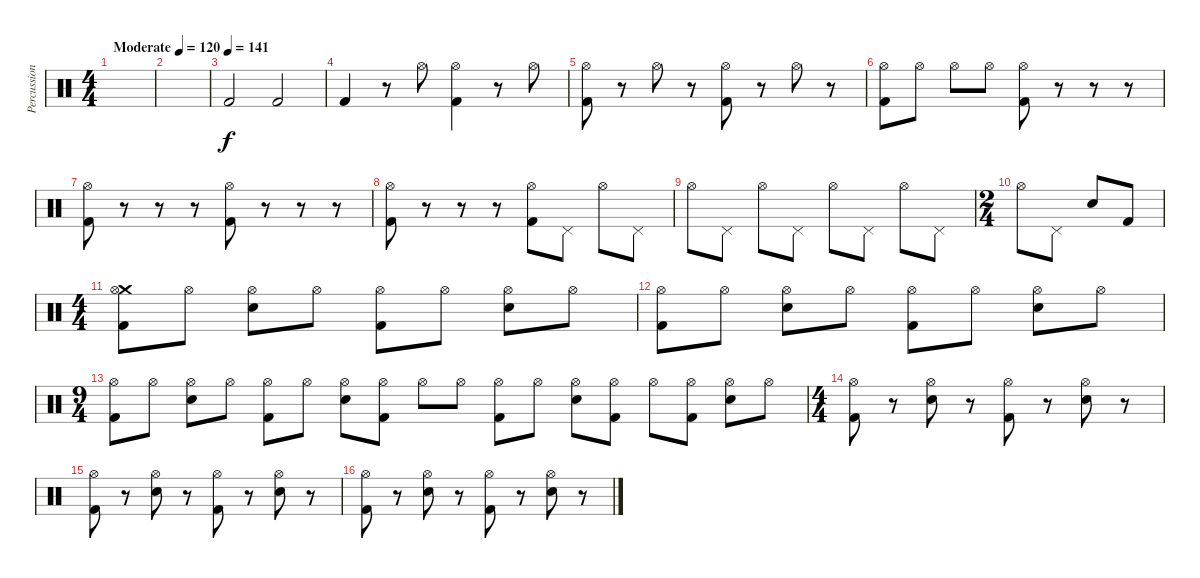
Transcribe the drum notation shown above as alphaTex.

\track ("Percussion" "Percussion") {instrument percussion}
\staff {score}
\articulation defaults
\ts (4 4)
\tempo (120 "Moderate")
\clef neutral
\ks c
|
|
\tempo (141)
"Kick (hit) 2".2 "Kick (hit) 2".2 |
"Kick (hit) 2".4 r.8 "Hi-Hat (open)".8 ("Hi-Hat (open)" "Kick (hit) 2").4 r.8 "Hi-Hat (open)".8 |
("Hi-Hat (open)" "Kick (hit) 2").8 r.8 "Hi-Hat (open)".8 r.8 ("Hi-Hat (open)" "Kick (hit) 2").8 r.8 "Hi-Hat (open)".8 r.8 |
("Hi-Hat (open)" "Kick (hit) 2").8 "Hi-Hat (open)".8 "Hi-Hat (open)".8 "Hi-Hat (open)".8 ("Hi-Hat (open)" "Kick (hit) 2").8 r.8 r.8 r.8 |
("Hi-Hat (open)" "Kick (hit) 2").8 r.8 r.8 r.8 ("Hi-Hat (open)" "Kick (hit) 2").8 r.8 r.8 r.8 |
("Hi-Hat (open)" "Kick (hit) 2").8 r.8 r.8 r.8 ("Hi-Hat (open)" "Kick (hit) 2").8 "Pedal Hi-Hat (hit)".8 "Hi-Hat (open)".8 "Pedal Hi-Hat (hit)".8 |
"Hi-Hat (open)".8 "Pedal Hi-Hat (hit)".8 "Hi-Hat (open)".8 "Pedal Hi-Hat (hit)".8 "Hi-Hat (open)".8 "Pedal Hi-Hat (hit)".8 "Hi-Hat (open)".8 "Pedal Hi-Hat (hit)".8 |
\ts (2 4)
"Hi-Hat (open)".8 "Pedal Hi-Hat (hit)".8 "Electric Snare (hit)".8 "Kick (hit) 2".8 |
\ts (4 4)
("Crash medium (hit)" "Hi-Hat (open)" "Kick (hit) 2").8 "Hi-Hat (open)".8 ("Hi-Hat (open)" "Electric Snare (hit)").8 "Hi-Hat (open)".8 ("Hi-Hat (open)" "Kick (hit) 2").8 "Hi-Hat (open)".8 ("Hi-Hat (open)" "Electric Snare (hit)").8 "Hi-Hat (open)".8 |
("Hi-Hat (open)" "Kick (hit) 2").8 "Hi-Hat (open)".8 ("Hi-Hat (open)" "Electric Snare (hit)").8 "Hi-Hat (open)".8 ("Hi-Hat (open)" "Kick (hit) 2").8 "Hi-Hat (open)".8 ("Hi-Hat (open)" "Electric Snare (hit)").8 "Hi-Hat (open)".8 |
\ts (9 4)
("Hi-Hat (open)" "Kick (hit) 2").8 "Hi-Hat (open)".8 ("Hi-Hat (open)" "Electric Snare (hit)").8 "Hi-Hat (open)".8 ("Hi-Hat (open)" "Kick (hit) 2").8 "Hi-Hat (open)".8 ("Hi-Hat (open)" "Electric Snare (hit)").8 ("Hi-Hat (open)" "Kick (hit) 2").8 "Hi-Hat (open)".8 "Hi-Hat (open)".8 ("Hi-Hat (open)" "Kick (hit) 2").8 "Hi-Hat (open)".8 ("Hi-Hat (open)" "Electric Snare (hit)").8 ("Hi-Hat (open)" "Kick (hit) 2").8 "Hi-Hat (open)".8 ("Hi-Hat (open)" "Kick (hit) 2").8 ("Hi-Hat (open)" "Electric Snare (hit)").8 "Hi-Hat (open)".8 |
\ts (4 4)
("Hi-Hat (open)" "Kick (hit) 2").8 r.8 ("Hi-Hat (open)" "Electric Snare (hit)").8 r.8 ("Hi-Hat (open)" "Kick (hit) 2").8 r.8 ("Hi-Hat (open)" "Electric Snare (hit)").8 r.8 |
("Hi-Hat (open)" "Kick (hit) 2").8 r.8 ("Hi-Hat (open)" "Electric Snare (hit)").8 r.8 ("Hi-Hat (open)" "Kick (hit) 2").8 r.8 ("Hi-Hat (open)" "Electric Snare (hit)").8 r.8 |
("Hi-Hat (open)" "Kick (hit) 2").8 r.8 ("Hi-Hat (open)" "Electric Snare (hit)").8 r.8 ("Hi-Hat (open)" "Kick (hit) 2").8 r.8 ("Hi-Hat (open)" "Electric Snare (hit)").8 r.8
